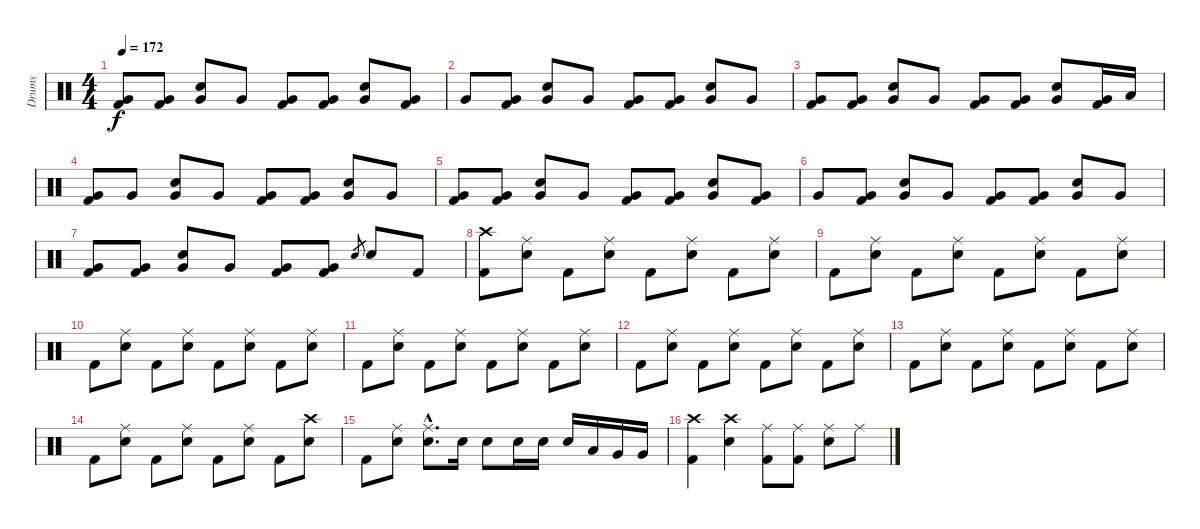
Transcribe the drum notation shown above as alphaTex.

\track ("Drums" "Drums") {instrument percussion}
\staff {score}
\articulation defaults
\ts (4 4)
\tempo 172
\clef neutral
\ks c
("Very Low Tom (hit)" "Kick (hit) 2").8{dy f} ("Very Low Tom (hit)" "Kick (hit) 2").8 ("Very Low Tom (hit)" "Electric Snare (hit)").8 "Very Low Tom (hit)".8 ("Very Low Tom (hit)" "Kick (hit) 2").8 ("Very Low Tom (hit)" "Kick (hit) 2").8 ("Very Low Tom (hit)" "Electric Snare (hit)").8 ("Very Low Tom (hit)" "Kick (hit) 2").8 |
"Very Low Tom (hit)".8 ("Very Low Tom (hit)" "Kick (hit) 2").8 ("Very Low Tom (hit)" "Electric Snare (hit)").8 "Very Low Tom (hit)".8 ("Very Low Tom (hit)" "Kick (hit) 2").8 ("Very Low Tom (hit)" "Kick (hit) 2").8 ("Very Low Tom (hit)" "Electric Snare (hit)").8 "Very Low Tom (hit)".8 |
("Very Low Tom (hit)" "Kick (hit) 2").8 ("Very Low Tom (hit)" "Kick (hit) 2").8 ("Very Low Tom (hit)" "Electric Snare (hit)").8 "Very Low Tom (hit)".8 ("Very Low Tom (hit)" "Kick (hit) 2").8 ("Very Low Tom (hit)" "Kick (hit) 2").8 ("Very Low Tom (hit)" "Electric Snare (hit)").8 ("Very Low Tom (hit)" "Kick (hit) 2").16 "Low Tom (hit)".16 |
("Very Low Tom (hit)" "Kick (hit) 2").8 "Very Low Tom (hit)".8 ("Very Low Tom (hit)" "Electric Snare (hit)").8 "Very Low Tom (hit)".8 ("Very Low Tom (hit)" "Kick (hit) 2").8 ("Very Low Tom (hit)" "Kick (hit) 2").8 ("Very Low Tom (hit)" "Electric Snare (hit)").8 "Very Low Tom (hit)".8 |
("Very Low Tom (hit)" "Kick (hit) 2").8 ("Very Low Tom (hit)" "Kick (hit) 2").8 ("Very Low Tom (hit)" "Electric Snare (hit)").8 "Very Low Tom (hit)".8 ("Very Low Tom (hit)" "Kick (hit) 2").8 ("Very Low Tom (hit)" "Kick (hit) 2").8 ("Very Low Tom (hit)" "Electric Snare (hit)").8 ("Very Low Tom (hit)" "Kick (hit) 2").8 |
"Very Low Tom (hit)".8 ("Very Low Tom (hit)" "Kick (hit) 2").8 ("Very Low Tom (hit)" "Electric Snare (hit)").8 "Very Low Tom (hit)".8 ("Very Low Tom (hit)" "Kick (hit) 2").8 ("Very Low Tom (hit)" "Kick (hit) 2").8 ("Very Low Tom (hit)" "Electric Snare (hit)").8 "Very Low Tom (hit)".8 |
("Very Low Tom (hit)" "Kick (hit) 2").8 ("Very Low Tom (hit)" "Kick (hit) 2").8 ("Very Low Tom (hit)" "Electric Snare (hit)").8 "Very Low Tom (hit)".8 ("Very Low Tom (hit)" "Kick (hit) 2").8 ("Very Low Tom (hit)" "Kick (hit) 2").8 "Electric Snare (hit)".8{gr} "Electric Snare (hit)".8 "Kick (hit) 2".8 |
("Crash high (hit)" "Kick (hit) 2").8 ("Ride (middle)" "Electric Snare (hit)").8 "Kick (hit) 2".8 ("Ride (middle)" "Electric Snare (hit)").8 "Kick (hit) 2".8 ("Ride (middle)" "Electric Snare (hit)").8 "Kick (hit) 2".8 ("Ride (middle)" "Electric Snare (hit)").8 |
"Kick (hit) 2".8 ("Ride (middle)" "Electric Snare (hit)").8 "Kick (hit) 2".8 ("Ride (middle)" "Electric Snare (hit)").8 "Kick (hit) 2".8 ("Ride (middle)" "Electric Snare (hit)").8 "Kick (hit) 2".8 ("Ride (middle)" "Electric Snare (hit)").8 |
"Kick (hit) 2".8 ("Ride (middle)" "Electric Snare (hit)").8 "Kick (hit) 2".8 ("Ride (middle)" "Electric Snare (hit)").8 "Kick (hit) 2".8 ("Ride (middle)" "Electric Snare (hit)").8 "Kick (hit) 2".8 ("Ride (middle)" "Electric Snare (hit)").8 |
"Kick (hit) 2".8 ("Ride (middle)" "Electric Snare (hit)").8 "Kick (hit) 2".8 ("Ride (middle)" "Electric Snare (hit)").8 "Kick (hit) 2".8 ("Ride (middle)" "Electric Snare (hit)").8 "Kick (hit) 2".8 ("Ride (middle)" "Electric Snare (hit)").8 |
"Kick (hit) 2".8 ("Ride (middle)" "Electric Snare (hit)").8 "Kick (hit) 2".8 ("Ride (middle)" "Electric Snare (hit)").8 "Kick (hit) 2".8 ("Ride (middle)" "Electric Snare (hit)").8 "Kick (hit) 2".8 ("Ride (middle)" "Electric Snare (hit)").8 |
"Kick (hit) 2".8 ("Ride (middle)" "Electric Snare (hit)").8 "Kick (hit) 2".8 ("Ride (middle)" "Electric Snare (hit)").8 "Kick (hit) 2".8 ("Ride (middle)" "Electric Snare (hit)").8 "Kick (hit) 2".8 ("Ride (middle)" "Electric Snare (hit)").8 |
"Kick (hit) 2".8 ("Ride (middle)" "Electric Snare (hit)").8 "Kick (hit) 2".8 ("Ride (middle)" "Electric Snare (hit)").8 "Kick (hit) 2".8 ("Ride (middle)" "Electric Snare (hit)").8 "Kick (hit) 2".8 ("Crash high (hit)" "Electric Snare (hit)").8 |
"Kick (hit) 2".8 ("Ride (middle)" "Electric Snare (hit)").8 ("Ride (middle)"{hac} "Electric Snare (hit)"{hac}).8{d} "Electric Snare (hit)".16 "Electric Snare (hit)".8 "Electric Snare (hit)".16 "Electric Snare (hit)".16 "Electric Snare (hit)".16 "Low Tom (hit)".16 "Very Low Tom (hit)".16 "Very Low Tom (hit)".16 |
("Crash high (hit)" "Kick (hit) 2").4 ("Crash high (hit)" "Electric Snare (hit)").4 ("Ride (middle)" "Kick (hit) 2").8 ("Ride (middle)" "Kick (hit) 2").8 ("Ride (middle)" "Electric Snare (hit)").8 "Ride (middle)".8
